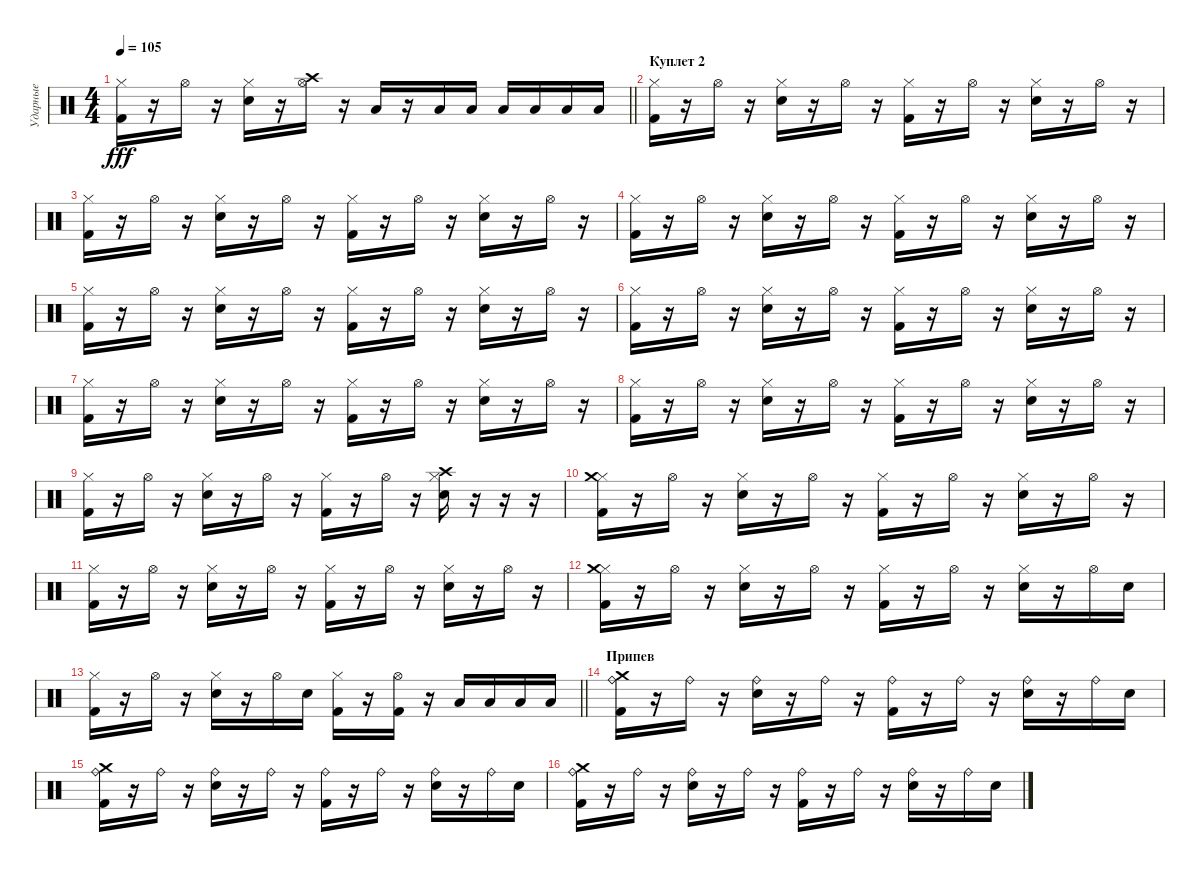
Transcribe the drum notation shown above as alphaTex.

\track ("Ударные" "Ударные") {instrument percussion}
\staff {score}
\articulation defaults
\ts (4 4)
\tempo 105
\clef neutral
\barLineRight lightlight
\ks c
("Kick (hit) 2" "Hi-Hat (closed)").16{dy fff} r.16 "Hi-Hat (open)".16 r.16 ("Snare (hit) 2" "Hi-Hat (closed)").16 r.16 ("Hi-Hat (open)" "Crash high (hit)").16 r.16 "Low Floor Tom (hit)".16 r.16 "Low Tom (hit)".16 "Low Floor Tom (hit)".16 "Low Tom (hit)".16 "Low Floor Tom (hit)".16 "Low Tom (hit)".16 "Low Floor Tom (hit)".16 |
\section ("" "Куплет 2")
("Kick (hit) 2" "Hi-Hat (closed)").16 r.16 "Hi-Hat (open)".16 r.16 ("Snare (hit) 2" "Hi-Hat (closed)").16 r.16 "Hi-Hat (open)".16 r.16 ("Kick (hit) 2" "Hi-Hat (closed)").16 r.16 "Hi-Hat (open)".16 r.16 ("Snare (hit) 2" "Hi-Hat (closed)").16 r.16 "Hi-Hat (open)".16 r.16 |
("Kick (hit) 2" "Hi-Hat (closed)").16 r.16 "Hi-Hat (open)".16 r.16 ("Snare (hit) 2" "Hi-Hat (closed)").16 r.16 "Hi-Hat (open)".16 r.16 ("Kick (hit) 2" "Hi-Hat (closed)").16 r.16 "Hi-Hat (open)".16 r.16 ("Snare (hit) 2" "Hi-Hat (closed)").16 r.16 "Hi-Hat (open)".16 r.16 |
("Kick (hit) 2" "Hi-Hat (closed)").16 r.16 "Hi-Hat (open)".16 r.16 ("Snare (hit) 2" "Hi-Hat (closed)").16 r.16 "Hi-Hat (open)".16 r.16 ("Kick (hit) 2" "Hi-Hat (closed)").16 r.16 "Hi-Hat (open)".16 r.16 ("Snare (hit) 2" "Hi-Hat (closed)").16 r.16 "Hi-Hat (open)".16 r.16 |
("Kick (hit) 2" "Hi-Hat (closed)").16 r.16 "Hi-Hat (open)".16 r.16 ("Snare (hit) 2" "Hi-Hat (closed)").16 r.16 "Hi-Hat (open)".16 r.16 ("Kick (hit) 2" "Hi-Hat (closed)").16 r.16 "Hi-Hat (open)".16 r.16 ("Snare (hit) 2" "Hi-Hat (closed)").16 r.16 "Hi-Hat (open)".16 r.16 |
("Kick (hit) 2" "Hi-Hat (closed)").16 r.16 "Hi-Hat (open)".16 r.16 ("Snare (hit) 2" "Hi-Hat (closed)").16 r.16 "Hi-Hat (open)".16 r.16 ("Kick (hit) 2" "Hi-Hat (closed)").16 r.16 "Hi-Hat (open)".16 r.16 ("Snare (hit) 2" "Hi-Hat (closed)").16 r.16 "Hi-Hat (open)".16 r.16 |
("Kick (hit) 2" "Hi-Hat (closed)").16 r.16 "Hi-Hat (open)".16 r.16 ("Snare (hit) 2" "Hi-Hat (closed)").16 r.16 "Hi-Hat (open)".16 r.16 ("Kick (hit) 2" "Hi-Hat (closed)").16 r.16 "Hi-Hat (open)".16 r.16 ("Snare (hit) 2" "Hi-Hat (closed)").16 r.16 "Hi-Hat (open)".16 r.16 |
("Kick (hit) 2" "Hi-Hat (closed)").16 r.16 "Hi-Hat (open)".16 r.16 ("Snare (hit) 2" "Hi-Hat (closed)").16 r.16 "Hi-Hat (open)".16 r.16 ("Kick (hit) 2" "Hi-Hat (closed)").16 r.16 "Hi-Hat (open)".16 r.16 ("Snare (hit) 2" "Hi-Hat (closed)").16 r.16 "Hi-Hat (open)".16 r.16 |
("Kick (hit) 2" "Hi-Hat (closed)").16 r.16 "Hi-Hat (open)".16 r.16 ("Snare (hit) 2" "Hi-Hat (closed)").16 r.16 "Hi-Hat (open)".16 r.16 ("Kick (hit) 2" "Hi-Hat (closed)").16 r.16 "Hi-Hat (open)".16 r.16 ("Snare (hit) 2" "Hi-Hat (closed)" "Crash high (hit)").16 r.16 r.16 r.16 |
("Kick (hit) 2" "Hi-Hat (closed)" "Crash medium (hit)").16 r.16 "Hi-Hat (open)".16 r.16 ("Snare (hit) 2" "Hi-Hat (closed)").16 r.16 "Hi-Hat (open)".16 r.16 ("Kick (hit) 2" "Hi-Hat (closed)").16 r.16 "Hi-Hat (open)".16 r.16 ("Snare (hit) 2" "Hi-Hat (closed)").16 r.16 "Hi-Hat (open)".16 r.16 |
("Kick (hit) 2" "Hi-Hat (closed)").16 r.16 "Hi-Hat (open)".16 r.16 ("Snare (hit) 2" "Hi-Hat (closed)").16 r.16 "Hi-Hat (open)".16 r.16 ("Kick (hit) 2" "Hi-Hat (closed)").16 r.16 "Hi-Hat (open)".16 r.16 ("Snare (hit) 2" "Hi-Hat (closed)").16 r.16 "Hi-Hat (open)".16 r.16 |
("Kick (hit) 2" "Hi-Hat (closed)" "Crash medium (hit)").16 r.16 "Hi-Hat (open)".16 r.16 ("Snare (hit) 2" "Hi-Hat (closed)").16 r.16 "Hi-Hat (open)".16 r.16 ("Kick (hit) 2" "Hi-Hat (closed)").16 r.16 "Hi-Hat (open)".16 r.16 ("Snare (hit) 2" "Hi-Hat (closed)").16 r.16 "Hi-Hat (open)".16 "Snare (hit) 2".16 |
\barLineRight lightlight
("Kick (hit) 2" "Hi-Hat (closed)").16 r.16 "Hi-Hat (open)".16 r.16 ("Snare (hit) 2" "Hi-Hat (closed)").16 r.16 "Hi-Hat (open)".16 "Snare (hit) 2".16 ("Kick (hit) 2" "Hi-Hat (closed)").16 r.16 ("Kick (hit) 2" "Hi-Hat (open)").16 r.16 "Low Floor Tom (hit)".16 "Low Floor Tom (hit)".16 "Low Floor Tom (hit)".16 "Low Floor Tom (hit)".16 |
\section ("" "Припев")
("Kick (hit) 2" "Ride (bell)" "Crash medium (hit)").16 r.16 "Ride (bell)".16 r.16 ("Snare (hit) 2" "Ride (bell)").16 r.16 "Ride (bell)".16 r.16 ("Kick (hit) 2" "Ride (bell)").16 r.16 "Ride (bell)".16 r.16 ("Snare (hit) 2" "Ride (bell)").16 r.16 "Ride (bell)".16 "Snare (hit) 2".16 |
("Kick (hit) 2" "Ride (bell)" "Crash medium (hit)").16 r.16 "Ride (bell)".16 r.16 ("Snare (hit) 2" "Ride (bell)").16 r.16 "Ride (bell)".16 r.16 ("Kick (hit) 2" "Ride (bell)").16 r.16 "Ride (bell)".16 r.16 ("Snare (hit) 2" "Ride (bell)").16 r.16 "Ride (bell)".16 "Snare (hit) 2".16 |
("Kick (hit) 2" "Ride (bell)" "Crash medium (hit)").16 r.16 "Ride (bell)".16 r.16 ("Snare (hit) 2" "Ride (bell)").16 r.16 "Ride (bell)".16 r.16 ("Kick (hit) 2" "Ride (bell)").16 r.16 "Ride (bell)".16 r.16 ("Snare (hit) 2" "Ride (bell)").16 r.16 "Ride (bell)".16 "Snare (hit) 2".16
